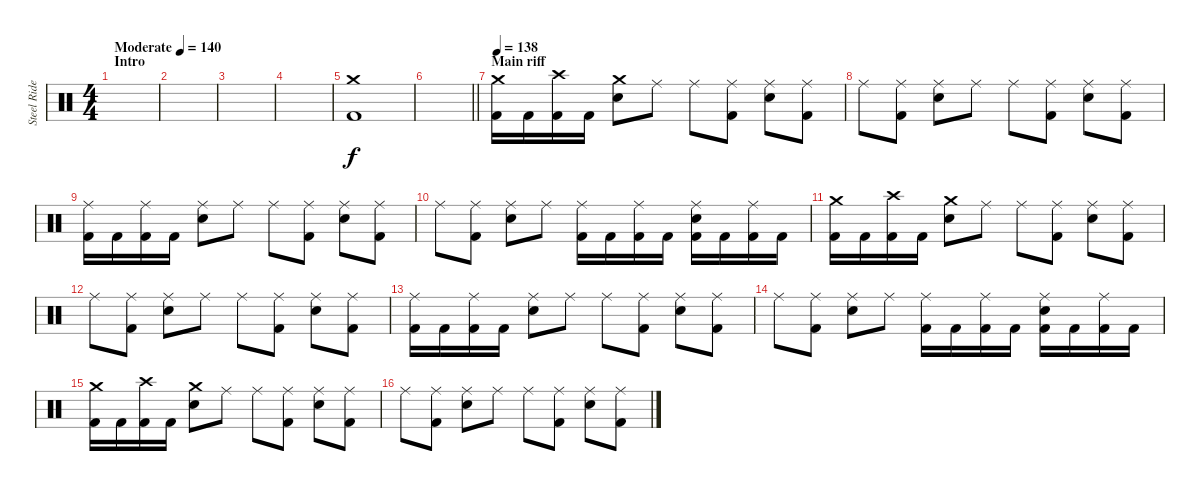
\track ("Steel Rider" "Steel Ride") {instrument percussion}
\staff {score}
\articulation defaults
\ts (4 4)
\section ("" "Intro")
\tempo (140 "Moderate")
\tempo 130
\tempo (140 "Moderate")
\clef neutral
\ks c
|
|
|
|
("Crash medium (hit)" "Kick (hit) 2").1 |
\barLineRight lightlight
|
\section ("" "Main riff")
\tempo 138
("Crash medium (hit)" "Kick (hit) 2").16 "Kick (hit) 2".16 ("Crash high (hit)" "Kick (hit) 2").16 "Kick (hit) 2".16 ("Crash medium (hit)" "Electric Snare (hit)").8 "Ride (middle)".8 "Ride (middle)".8 ("Ride (middle)" "Kick (hit) 2").8 ("Ride (middle)" "Electric Snare (hit)").8 ("Ride (middle)" "Kick (hit) 2").8 |
"Ride (middle)".8 ("Ride (middle)" "Kick (hit) 2").8 ("Ride (middle)" "Electric Snare (hit)").8 "Ride (middle)".8 "Ride (middle)".8 ("Ride (middle)" "Kick (hit) 2").8 ("Ride (middle)" "Electric Snare (hit)").8 ("Ride (middle)" "Kick (hit) 2").8 |
("Ride (middle)" "Kick (hit) 2").16 "Kick (hit) 2".16 ("Ride (middle)" "Kick (hit) 2").16 "Kick (hit) 2".16 ("Ride (middle)" "Electric Snare (hit)").8 "Ride (middle)".8 "Ride (middle)".8 ("Ride (middle)" "Kick (hit) 2").8 ("Ride (middle)" "Electric Snare (hit)").8 ("Ride (middle)" "Kick (hit) 2").8 |
"Ride (middle)".8 ("Ride (middle)" "Kick (hit) 2").8 ("Ride (middle)" "Electric Snare (hit)").8 "Ride (middle)".8 ("Ride (middle)" "Kick (hit) 2").16 "Kick (hit) 2".16 ("Ride (middle)" "Kick (hit) 2").16 "Kick (hit) 2".16 ("Ride (middle)" "Electric Snare (hit)" "Kick (hit) 2").16 "Kick (hit) 2".16 ("Ride (middle)" "Kick (hit) 2").16 "Kick (hit) 2".16 |
("Crash medium (hit)" "Kick (hit) 2").16 "Kick (hit) 2".16 ("Crash high (hit)" "Kick (hit) 2").16 "Kick (hit) 2".16 ("Crash medium (hit)" "Electric Snare (hit)").8 "Ride (middle)".8 "Ride (middle)".8 ("Ride (middle)" "Kick (hit) 2").8 ("Ride (middle)" "Electric Snare (hit)").8 ("Ride (middle)" "Kick (hit) 2").8 |
"Ride (middle)".8 ("Ride (middle)" "Kick (hit) 2").8 ("Ride (middle)" "Electric Snare (hit)").8 "Ride (middle)".8 "Ride (middle)".8 ("Ride (middle)" "Kick (hit) 2").8 ("Ride (middle)" "Electric Snare (hit)").8 ("Ride (middle)" "Kick (hit) 2").8 |
("Ride (middle)" "Kick (hit) 2").16 "Kick (hit) 2".16 ("Ride (middle)" "Kick (hit) 2").16 "Kick (hit) 2".16 ("Ride (middle)" "Electric Snare (hit)").8 "Ride (middle)".8 "Ride (middle)".8 ("Ride (middle)" "Kick (hit) 2").8 ("Ride (middle)" "Electric Snare (hit)").8 ("Ride (middle)" "Kick (hit) 2").8 |
"Ride (middle)".8 ("Ride (middle)" "Kick (hit) 2").8 ("Ride (middle)" "Electric Snare (hit)").8 "Ride (middle)".8 ("Ride (middle)" "Kick (hit) 2").16 "Kick (hit) 2".16 ("Ride (middle)" "Kick (hit) 2").16 "Kick (hit) 2".16 ("Ride (middle)" "Electric Snare (hit)" "Kick (hit) 2").16 "Kick (hit) 2".16 ("Ride (middle)" "Kick (hit) 2").16 "Kick (hit) 2".16 |
("Crash medium (hit)" "Kick (hit) 2").16 "Kick (hit) 2".16 ("Crash high (hit)" "Kick (hit) 2").16 "Kick (hit) 2".16 ("Crash medium (hit)" "Electric Snare (hit)").8 "Ride (middle)".8 "Ride (middle)".8 ("Ride (middle)" "Kick (hit) 2").8 ("Ride (middle)" "Electric Snare (hit)").8 ("Ride (middle)" "Kick (hit) 2").8 |
"Ride (middle)".8 ("Ride (middle)" "Kick (hit) 2").8 ("Ride (middle)" "Electric Snare (hit)").8 "Ride (middle)".8 "Ride (middle)".8 ("Ride (middle)" "Kick (hit) 2").8 ("Ride (middle)" "Electric Snare (hit)").8 ("Ride (middle)" "Kick (hit) 2").8
